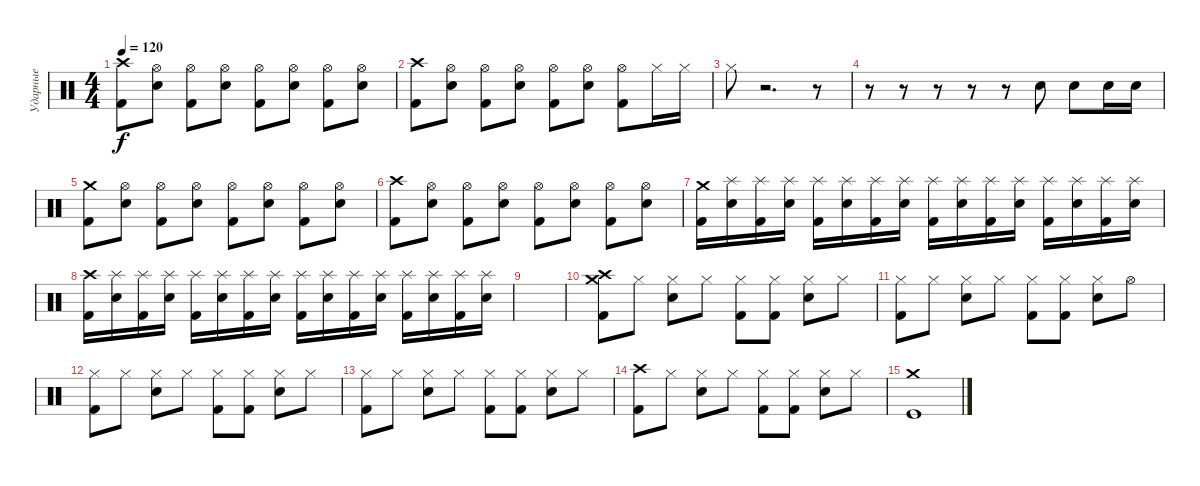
\track ("Ударные" "Ударные") {instrument percussion}
\staff {score}
\articulation defaults
\ts (4 4)
\tempo 120
\clef neutral
\ks c
("Crash high (hit)" "Kick (hit) 2").8{dy f} ("Hi-Hat (open)" "Electric Snare (hit)").8 ("Hi-Hat (open)" "Kick (hit) 2").8 ("Hi-Hat (open)" "Electric Snare (hit)").8 ("Hi-Hat (open)" "Kick (hit) 2").8 ("Hi-Hat (open)" "Electric Snare (hit)").8 ("Hi-Hat (open)" "Kick (hit) 2").8 ("Hi-Hat (open)" "Electric Snare (hit)").8 |
("Crash high (hit)" "Kick (hit) 2").8 ("Hi-Hat (open)" "Electric Snare (hit)").8 ("Hi-Hat (open)" "Kick (hit) 2").8 ("Hi-Hat (open)" "Electric Snare (hit)").8 ("Hi-Hat (open)" "Kick (hit) 2").8 ("Hi-Hat (open)" "Electric Snare (hit)").8 ("Hi-Hat (open)" "Kick (hit) 2").8 "Hi-Hat (closed)".16 "Hi-Hat (closed)".16 |
"Hi-Hat (closed)".8 r.2{d} r.8 |
r.8 r.8 r.8 r.8 r.8 "Electric Snare (hit)".8 "Electric Snare (hit)".8 "Electric Snare (hit)".16 "Electric Snare (hit)".16 |
("Crash medium (hit)" "Kick (hit) 2").8 ("Hi-Hat (open)" "Electric Snare (hit)").8 ("Hi-Hat (open)" "Kick (hit) 2").8 ("Hi-Hat (open)" "Electric Snare (hit)").8 ("Hi-Hat (open)" "Kick (hit) 2").8 ("Hi-Hat (open)" "Electric Snare (hit)").8 ("Hi-Hat (open)" "Kick (hit) 2").8 ("Hi-Hat (open)" "Electric Snare (hit)").8 |
("Crash high (hit)" "Kick (hit) 2").8 ("Hi-Hat (open)" "Electric Snare (hit)").8 ("Hi-Hat (open)" "Kick (hit) 2").8 ("Hi-Hat (open)" "Electric Snare (hit)").8 ("Hi-Hat (open)" "Kick (hit) 2").8 ("Hi-Hat (open)" "Electric Snare (hit)").8 ("Hi-Hat (open)" "Kick (hit) 2").8 ("Hi-Hat (open)" "Electric Snare (hit)").8 |
("Crash medium (hit)" "Kick (hit) 2").16 ("Splash (hit)" "Electric Snare (hit)").16 ("Splash (hit)" "Kick (hit) 2").16 ("Splash (hit)" "Electric Snare (hit)").16 ("Splash (hit)" "Kick (hit) 2").16 ("Splash (hit)" "Electric Snare (hit)").16 ("Splash (hit)" "Kick (hit) 2").16 ("Splash (hit)" "Electric Snare (hit)").16 ("Splash (hit)" "Kick (hit) 2").16 ("Splash (hit)" "Electric Snare (hit)").16 ("Splash (hit)" "Kick (hit) 2").16 ("Splash (hit)" "Electric Snare (hit)").16 ("Splash (hit)" "Kick (hit) 2").16 ("Splash (hit)" "Electric Snare (hit)").16 ("Splash (hit)" "Kick (hit) 2").16 ("Splash (hit)" "Electric Snare (hit)").16 |
("Crash high (hit)" "Kick (hit) 2").16 ("Splash (hit)" "Electric Snare (hit)").16 ("Splash (hit)" "Kick (hit) 2").16 ("Splash (hit)" "Electric Snare (hit)").16 ("Splash (hit)" "Kick (hit) 2").16 ("Splash (hit)" "Electric Snare (hit)").16 ("Splash (hit)" "Kick (hit) 2").16 ("Splash (hit)" "Electric Snare (hit)").16 ("Splash (hit)" "Kick (hit) 2").16 ("Splash (hit)" "Electric Snare (hit)").16 ("Splash (hit)" "Kick (hit) 2").16 ("Splash (hit)" "Electric Snare (hit)").16 ("Splash (hit)" "Kick (hit) 2").16 ("Splash (hit)" "Electric Snare (hit)").16 ("Splash (hit)" "Kick (hit) 2").16 ("Splash (hit)" "Electric Snare (hit)").16 |
|
("Crash high (hit)" "Crash medium (hit)" "Kick (hit) 2").8 "Hi-Hat (closed)".8 ("Hi-Hat (closed)" "Electric Snare (hit)").8 "Hi-Hat (closed)".8 ("Hi-Hat (closed)" "Kick (hit) 2").8 ("Hi-Hat (closed)" "Kick (hit) 2").8 ("Hi-Hat (closed)" "Electric Snare (hit)").8 "Hi-Hat (closed)".8 |
("Hi-Hat (closed)" "Kick (hit) 2").8 "Hi-Hat (closed)".8 ("Hi-Hat (closed)" "Electric Snare (hit)").8 "Hi-Hat (closed)".8 ("Hi-Hat (closed)" "Kick (hit) 2").8 ("Hi-Hat (closed)" "Kick (hit) 2").8 ("Hi-Hat (closed)" "Electric Snare (hit)").8 "Hi-Hat (open)".8 |
("Hi-Hat (closed)" "Kick (hit) 2").8 "Hi-Hat (closed)".8 ("Hi-Hat (closed)" "Electric Snare (hit)").8 "Hi-Hat (closed)".8 ("Hi-Hat (closed)" "Kick (hit) 2").8 ("Hi-Hat (closed)" "Kick (hit) 2").8 ("Hi-Hat (closed)" "Electric Snare (hit)").8 "Hi-Hat (closed)".8 |
("Hi-Hat (closed)" "Kick (hit) 2").8 "Hi-Hat (closed)".8 ("Hi-Hat (closed)" "Electric Snare (hit)").8 "Hi-Hat (closed)".8 ("Hi-Hat (closed)" "Kick (hit) 2").8 ("Hi-Hat (closed)" "Kick (hit) 2").8 ("Hi-Hat (closed)" "Electric Snare (hit)").8 "Hi-Hat (closed)".8 |
("Crash high (hit)" "Kick (hit) 2").8 "Hi-Hat (closed)".8 ("Hi-Hat (closed)" "Electric Snare (hit)").8 "Hi-Hat (closed)".8 ("Hi-Hat (closed)" "Kick (hit) 2").8 ("Hi-Hat (closed)" "Kick (hit) 2").8 ("Hi-Hat (closed)" "Electric Snare (hit)").8 "Hi-Hat (closed)".8 |
("Crash medium (hit)" "Kick (hit)").1
